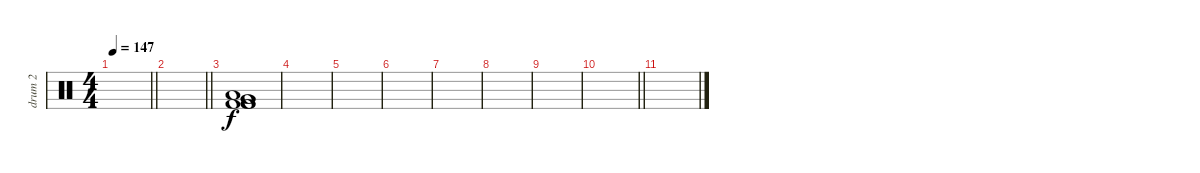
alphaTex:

\track ("drum 2" "drum 2") {instrument percussion}
\staff {score}
\articulation defaults
\ts (4 4)
\tempo 147
\clef neutral
\barLineRight lightlight
\ks c
|
\barLineRight lightlight
|
\section ("" "")
("Low Floor Tom (hit)" "Very Low Tom (hit)" "Very Low Tom (hit)" "Kick (hit) 2" "Kick (hit) 2" "Kick (hit) 2").1 |
|
|
|
|
|
|
\barLineRight lightlight
|
\section ("" "")
